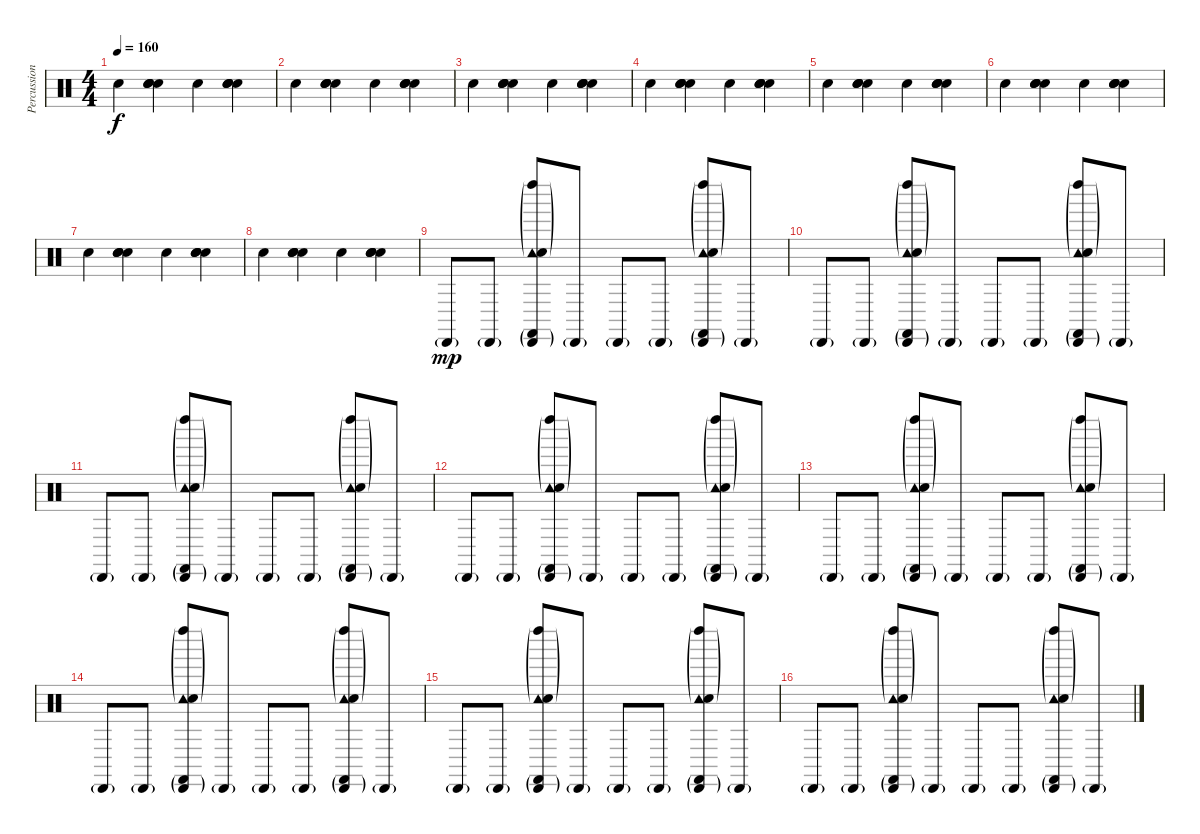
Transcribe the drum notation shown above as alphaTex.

\track ("Percussion" "Percussion") {instrument percussion}
\staff {score}
\articulation defaults
\ts (4 4)
\tempo 160
\clef neutral
\ks c "Snare (hit)".4{dy f}
("Hand Clap (hit)" "Hand Clap (hit)" "Hand Clap (hit)" "Hand Clap (hit)").4{bd 60} "Snare (hit)".4 ("Hand Clap (hit)" "Hand Clap (hit)" "Hand Clap (hit)" "Hand Clap (hit)").4{bd 60} |
"Snare (hit)".4 ("Hand Clap (hit)" "Hand Clap (hit)" "Hand Clap (hit)" "Hand Clap (hit)").4{bd 60} "Snare (hit)".4 ("Hand Clap (hit)" "Hand Clap (hit)" "Hand Clap (hit)" "Hand Clap (hit)").4{bd 60} |
"Snare (hit)".4 ("Hand Clap (hit)" "Hand Clap (hit)" "Hand Clap (hit)" "Hand Clap (hit)").4{bd 60} "Snare (hit)".4 ("Hand Clap (hit)" "Hand Clap (hit)" "Hand Clap (hit)" "Hand Clap (hit)").4{bd 60} |
"Snare (hit)".4 ("Hand Clap (hit)" "Hand Clap (hit)" "Hand Clap (hit)" "Hand Clap (hit)").4{bd 60} "Snare (hit)".4 ("Hand Clap (hit)" "Hand Clap (hit)" "Hand Clap (hit)" "Hand Clap (hit)").4{bd 60} |
"Snare (hit)".4 ("Hand Clap (hit)" "Hand Clap (hit)" "Hand Clap (hit)" "Hand Clap (hit)").4{bd 60} "Snare (hit)".4 ("Hand Clap (hit)" "Hand Clap (hit)" "Hand Clap (hit)" "Hand Clap (hit)").4{bd 60} |
"Snare (hit)".4 ("Hand Clap (hit)" "Hand Clap (hit)" "Hand Clap (hit)" "Hand Clap (hit)").4{bd 60} "Snare (hit)".4 ("Hand Clap (hit)" "Hand Clap (hit)" "Hand Clap (hit)" "Hand Clap (hit)").4{bd 60} |
"Snare (hit)".4 ("Hand Clap (hit)" "Hand Clap (hit)" "Hand Clap (hit)" "Hand Clap (hit)").4{bd 60} "Snare (hit)".4 ("Hand Clap (hit)" "Hand Clap (hit)" "Hand Clap (hit)" "Hand Clap (hit)").4{bd 60} |
"Snare (hit)".4 ("Hand Clap (hit)" "Hand Clap (hit)" "Hand Clap (hit)" "Hand Clap (hit)").4{bd 60} "Snare (hit)".4 ("Hand Clap (hit)" "Hand Clap (hit)" "Hand Clap (hit)" "Hand Clap (hit)").4{bd 60} |
"Cabasa (hit)"{g}.8{dy mp} "Cabasa (hit)"{g}.8 ("Cabasa (hit)"{g} "Tambourine (hit)"{g} "Left Maraca (hit)"{g} "Castanets (hit)"{g} "Hand Clap (hit)").8{bd 120} "Cabasa (hit)"{g}.8 "Cabasa (hit)"{g}.8 "Cabasa (hit)"{g}.8 ("Cabasa (hit)"{g} "Tambourine (hit)"{g} "Left Maraca (hit)"{g} "Castanets (hit)"{g} "Hand Clap (hit)").8{bd 120} "Cabasa (hit)"{g}.8 |
"Cabasa (hit)"{g}.8 "Cabasa (hit)"{g}.8 ("Cabasa (hit)"{g} "Tambourine (hit)"{g} "Left Maraca (hit)"{g} "Castanets (hit)"{g} "Hand Clap (hit)").8{bd 120} "Cabasa (hit)"{g}.8 "Cabasa (hit)"{g}.8 "Cabasa (hit)"{g}.8 ("Cabasa (hit)"{g} "Tambourine (hit)"{g} "Left Maraca (hit)"{g} "Castanets (hit)"{g} "Hand Clap (hit)").8{bd 120} "Cabasa (hit)"{g}.8 |
"Cabasa (hit)"{g}.8 "Cabasa (hit)"{g}.8 ("Cabasa (hit)"{g} "Tambourine (hit)"{g} "Left Maraca (hit)"{g} "Castanets (hit)"{g} "Hand Clap (hit)").8{bd 120} "Cabasa (hit)"{g}.8 "Cabasa (hit)"{g}.8 "Cabasa (hit)"{g}.8 ("Cabasa (hit)"{g} "Tambourine (hit)"{g} "Left Maraca (hit)"{g} "Castanets (hit)"{g} "Hand Clap (hit)").8{bd 120} "Cabasa (hit)"{g}.8 |
"Cabasa (hit)"{g}.8 "Cabasa (hit)"{g}.8 ("Cabasa (hit)"{g} "Tambourine (hit)"{g} "Left Maraca (hit)"{g} "Castanets (hit)"{g} "Hand Clap (hit)").8{bd 120} "Cabasa (hit)"{g}.8 "Cabasa (hit)"{g}.8 "Cabasa (hit)"{g}.8 ("Cabasa (hit)"{g} "Tambourine (hit)"{g} "Left Maraca (hit)"{g} "Castanets (hit)"{g} "Hand Clap (hit)").8{bd 120} "Cabasa (hit)"{g}.8 |
"Cabasa (hit)"{g}.8 "Cabasa (hit)"{g}.8 ("Cabasa (hit)"{g} "Tambourine (hit)"{g} "Left Maraca (hit)"{g} "Castanets (hit)"{g} "Hand Clap (hit)").8{bd 120} "Cabasa (hit)"{g}.8 "Cabasa (hit)"{g}.8 "Cabasa (hit)"{g}.8 ("Cabasa (hit)"{g} "Tambourine (hit)"{g} "Left Maraca (hit)"{g} "Castanets (hit)"{g} "Hand Clap (hit)").8{bd 120} "Cabasa (hit)"{g}.8 |
"Cabasa (hit)"{g}.8 "Cabasa (hit)"{g}.8 ("Cabasa (hit)"{g} "Tambourine (hit)"{g} "Left Maraca (hit)"{g} "Castanets (hit)"{g} "Hand Clap (hit)").8{bd 120} "Cabasa (hit)"{g}.8 "Cabasa (hit)"{g}.8 "Cabasa (hit)"{g}.8 ("Cabasa (hit)"{g} "Tambourine (hit)"{g} "Left Maraca (hit)"{g} "Castanets (hit)"{g} "Hand Clap (hit)").8{bd 120} "Cabasa (hit)"{g}.8 |
"Cabasa (hit)"{g}.8 "Cabasa (hit)"{g}.8 ("Cabasa (hit)"{g} "Tambourine (hit)"{g} "Left Maraca (hit)"{g} "Castanets (hit)"{g} "Hand Clap (hit)").8{bd 120} "Cabasa (hit)"{g}.8 "Cabasa (hit)"{g}.8 "Cabasa (hit)"{g}.8 ("Cabasa (hit)"{g} "Tambourine (hit)"{g} "Left Maraca (hit)"{g} "Castanets (hit)"{g} "Hand Clap (hit)").8{bd 120} "Cabasa (hit)"{g}.8 |
"Cabasa (hit)"{g}.8 "Cabasa (hit)"{g}.8 ("Cabasa (hit)"{g} "Tambourine (hit)"{g} "Left Maraca (hit)"{g} "Castanets (hit)"{g} "Hand Clap (hit)").8{bd 120} "Cabasa (hit)"{g}.8 "Cabasa (hit)"{g}.8 "Cabasa (hit)"{g}.8 ("Cabasa (hit)"{g} "Tambourine (hit)"{g} "Left Maraca (hit)"{g} "Castanets (hit)"{g} "Hand Clap (hit)").8{bd 120} "Cabasa (hit)"{g}.8
